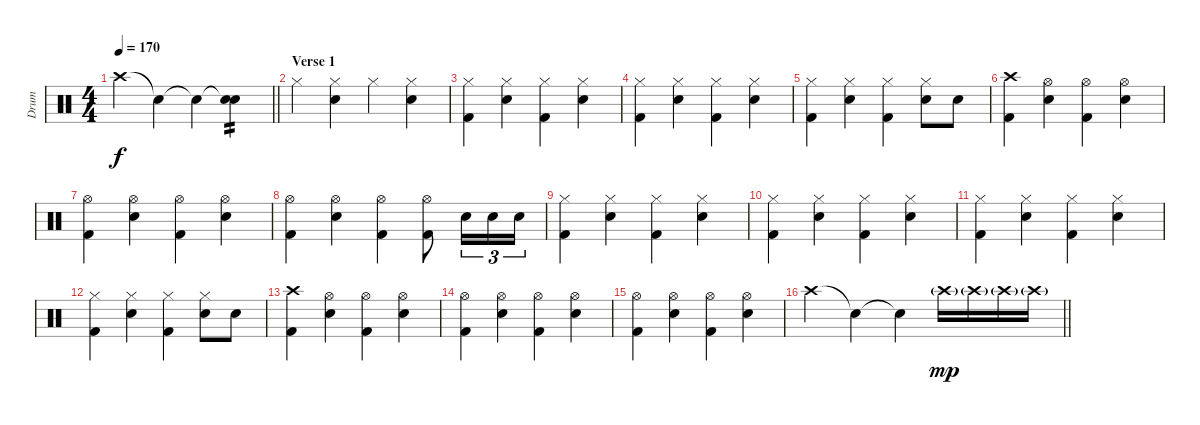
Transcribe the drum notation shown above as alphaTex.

\track ("Drum" "Drum") {instrument percussion}
\staff {score}
\articulation defaults
\ts (4 4)
\tempo 170
\clef neutral
\barLineRight lightlight
\ks c "Crash high (hit)".4{dy f} "Snare (hit)"{t}.4 "Snare (hit)"{t}.4
("Snare (hit)"{t} "Electric Snare (hit)").4{tp 2} |
\section ("" "Verse 1")
"Hi-Hat (closed)".4 ("Hi-Hat (closed)" "Electric Snare (hit)").4 "Hi-Hat (closed)".4 ("Hi-Hat (closed)" "Electric Snare (hit)").4 |
("Hi-Hat (closed)" "Kick (hit) 2").4 ("Hi-Hat (closed)" "Electric Snare (hit)").4 ("Hi-Hat (closed)" "Kick (hit) 2").4 ("Hi-Hat (closed)" "Electric Snare (hit)").4 |
("Hi-Hat (closed)" "Kick (hit) 2").4 ("Hi-Hat (closed)" "Electric Snare (hit)").4 ("Hi-Hat (closed)" "Kick (hit) 2").4 ("Hi-Hat (closed)" "Electric Snare (hit)").4 |
("Hi-Hat (closed)" "Kick (hit) 2").4 ("Hi-Hat (closed)" "Electric Snare (hit)").4 ("Hi-Hat (closed)" "Kick (hit) 2").4 ("Hi-Hat (closed)" "Electric Snare (hit)").8 "Electric Snare (hit)".8 |
("Crash high (hit)" "Kick (hit) 2").4 ("Hi-Hat (open)" "Electric Snare (hit)").4 ("Hi-Hat (open)" "Kick (hit) 2").4 ("Hi-Hat (open)" "Electric Snare (hit)").4 |
("Hi-Hat (open)" "Kick (hit) 2").4 ("Hi-Hat (open)" "Electric Snare (hit)").4 ("Hi-Hat (open)" "Kick (hit) 2").4 ("Hi-Hat (open)" "Electric Snare (hit)").4 |
("Hi-Hat (open)" "Kick (hit) 2").4 ("Hi-Hat (open)" "Electric Snare (hit)").4 ("Hi-Hat (open)" "Kick (hit) 2").4 ("Hi-Hat (open)" "Kick (hit) 2").8 "Electric Snare (hit)".16{tu (3 2)} "Electric Snare (hit)".16{tu (3 2)} "Electric Snare (hit)".16{tu (3 2)} |
("Hi-Hat (closed)" "Kick (hit) 2").4 ("Hi-Hat (closed)" "Electric Snare (hit)").4 ("Hi-Hat (closed)" "Kick (hit) 2").4 ("Hi-Hat (closed)" "Electric Snare (hit)").4 |
("Hi-Hat (closed)" "Kick (hit) 2").4 ("Hi-Hat (closed)" "Electric Snare (hit)").4 ("Hi-Hat (closed)" "Kick (hit) 2").4 ("Hi-Hat (closed)" "Electric Snare (hit)").4 |
("Hi-Hat (closed)" "Kick (hit) 2").4 ("Hi-Hat (closed)" "Electric Snare (hit)").4 ("Hi-Hat (closed)" "Kick (hit) 2").4 ("Hi-Hat (closed)" "Electric Snare (hit)").4 |
("Hi-Hat (closed)" "Kick (hit) 2").4 ("Hi-Hat (closed)" "Electric Snare (hit)").4 ("Hi-Hat (closed)" "Kick (hit) 2").4 ("Hi-Hat (closed)" "Electric Snare (hit)").8 "Electric Snare (hit)".8 |
("Crash high (hit)" "Kick (hit) 2").4 ("Hi-Hat (open)" "Electric Snare (hit)").4 ("Hi-Hat (open)" "Kick (hit) 2").4 ("Hi-Hat (open)" "Electric Snare (hit)").4 |
("Hi-Hat (open)" "Kick (hit) 2").4 ("Hi-Hat (open)" "Electric Snare (hit)").4 ("Hi-Hat (open)" "Kick (hit) 2").4 ("Hi-Hat (open)" "Electric Snare (hit)").4 |
("Hi-Hat (open)" "Kick (hit) 2").4 ("Hi-Hat (open)" "Electric Snare (hit)").4 ("Hi-Hat (open)" "Kick (hit) 2").4 ("Hi-Hat (open)" "Electric Snare (hit)").4 |
\barLineRight lightlight "Crash high (hit)".4 "Snare (hit)"{t}.4 "Snare (hit)"{t}.4 "Crash high (hit)"{g}.16{dy mp} "Crash high (hit)"{g}.16 "Crash high (hit)"{g}.16 "Crash high (hit)"{g}.16
